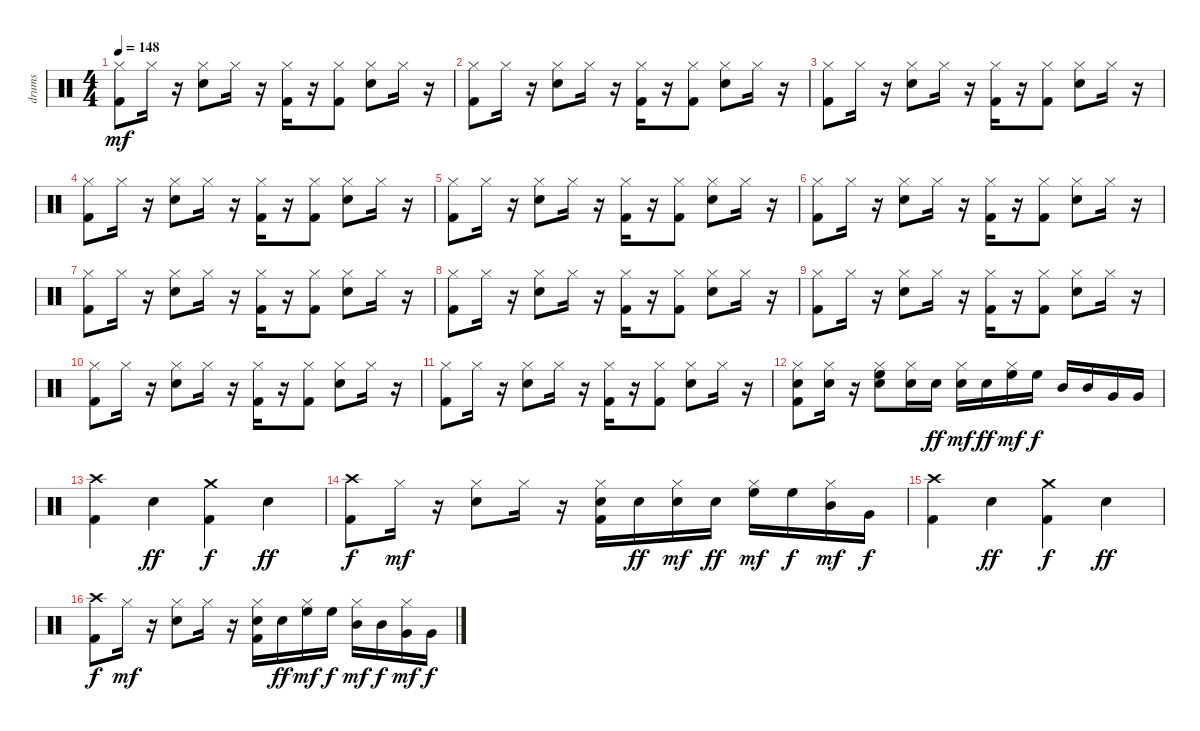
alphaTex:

\track ("drums" "drums") {instrument percussion}
\staff {score}
\articulation defaults
\ts (4 4)
\tempo 148
\clef neutral
\ks c
("Hi-Hat (closed)" "Kick (hit) 2").8{dy mf} "Hi-Hat (closed)".16 r.16 ("Snare (hit) 2" "Hi-Hat (closed)").8 "Hi-Hat (closed)".16 r.16 ("Hi-Hat (closed)" "Kick (hit) 2").16 r.16 ("Hi-Hat (closed)" "Kick (hit) 2").8 ("Snare (hit) 2" "Hi-Hat (closed)").8 "Hi-Hat (closed)".16 r.16 |
("Hi-Hat (closed)" "Kick (hit) 2").8 "Hi-Hat (closed)".16 r.16 ("Snare (hit) 2" "Hi-Hat (closed)").8 "Hi-Hat (closed)".16 r.16 ("Hi-Hat (closed)" "Kick (hit) 2").16 r.16 ("Hi-Hat (closed)" "Kick (hit) 2").8 ("Snare (hit) 2" "Hi-Hat (closed)").8 "Hi-Hat (closed)".16 r.16 |
("Hi-Hat (closed)" "Kick (hit) 2").8 "Hi-Hat (closed)".16 r.16 ("Snare (hit) 2" "Hi-Hat (closed)").8 "Hi-Hat (closed)".16 r.16 ("Hi-Hat (closed)" "Kick (hit) 2").16 r.16 ("Hi-Hat (closed)" "Kick (hit) 2").8 ("Snare (hit) 2" "Hi-Hat (closed)").8 "Hi-Hat (closed)".16 r.16 |
("Hi-Hat (closed)" "Kick (hit) 2").8 "Hi-Hat (closed)".16 r.16 ("Snare (hit) 2" "Hi-Hat (closed)").8 "Hi-Hat (closed)".16 r.16 ("Hi-Hat (closed)" "Kick (hit) 2").16 r.16 ("Hi-Hat (closed)" "Kick (hit) 2").8 ("Snare (hit) 2" "Hi-Hat (closed)").8 "Hi-Hat (closed)".16 r.16 |
("Hi-Hat (closed)" "Kick (hit) 2").8 "Hi-Hat (closed)".16 r.16 ("Snare (hit) 2" "Hi-Hat (closed)").8 "Hi-Hat (closed)".16 r.16 ("Hi-Hat (closed)" "Kick (hit) 2").16 r.16 ("Hi-Hat (closed)" "Kick (hit) 2").8 ("Snare (hit) 2" "Hi-Hat (closed)").8 "Hi-Hat (closed)".16 r.16 |
("Hi-Hat (closed)" "Kick (hit) 2").8 "Hi-Hat (closed)".16 r.16 ("Snare (hit) 2" "Hi-Hat (closed)").8 "Hi-Hat (closed)".16 r.16 ("Hi-Hat (closed)" "Kick (hit) 2").16 r.16 ("Hi-Hat (closed)" "Kick (hit) 2").8 ("Snare (hit) 2" "Hi-Hat (closed)").8 "Hi-Hat (closed)".16 r.16 |
("Hi-Hat (closed)" "Kick (hit) 2").8 "Hi-Hat (closed)".16 r.16 ("Snare (hit) 2" "Hi-Hat (closed)").8 "Hi-Hat (closed)".16 r.16 ("Hi-Hat (closed)" "Kick (hit) 2").16 r.16 ("Hi-Hat (closed)" "Kick (hit) 2").8 ("Snare (hit) 2" "Hi-Hat (closed)").8 "Hi-Hat (closed)".16 r.16 |
("Hi-Hat (closed)" "Kick (hit) 2").8 "Hi-Hat (closed)".16 r.16 ("Snare (hit) 2" "Hi-Hat (closed)").8 "Hi-Hat (closed)".16 r.16 ("Hi-Hat (closed)" "Kick (hit) 2").16 r.16 ("Hi-Hat (closed)" "Kick (hit) 2").8 ("Snare (hit) 2" "Hi-Hat (closed)").8 "Hi-Hat (closed)".16 r.16 |
("Hi-Hat (closed)" "Kick (hit) 2").8 "Hi-Hat (closed)".16 r.16 ("Snare (hit) 2" "Hi-Hat (closed)").8 "Hi-Hat (closed)".16 r.16 ("Hi-Hat (closed)" "Kick (hit) 2").16 r.16 ("Hi-Hat (closed)" "Kick (hit) 2").8 ("Snare (hit) 2" "Hi-Hat (closed)").8 "Hi-Hat (closed)".16 r.16 |
("Hi-Hat (closed)" "Kick (hit) 2").8 "Hi-Hat (closed)".16 r.16 ("Snare (hit) 2" "Hi-Hat (closed)").8 "Hi-Hat (closed)".16 r.16 ("Hi-Hat (closed)" "Kick (hit) 2").16 r.16 ("Hi-Hat (closed)" "Kick (hit) 2").8 ("Snare (hit) 2" "Hi-Hat (closed)").8 "Hi-Hat (closed)".16 r.16 |
("Hi-Hat (closed)" "Kick (hit) 2").8 "Hi-Hat (closed)".16 r.16 ("Snare (hit) 2" "Hi-Hat (closed)").8 "Hi-Hat (closed)".16 r.16 ("Hi-Hat (closed)" "Kick (hit) 2").16 r.16 ("Hi-Hat (closed)" "Kick (hit) 2").8 ("Snare (hit) 2" "Hi-Hat (closed)").8 "Hi-Hat (closed)".16 r.16 |
("Snare (hit) 2" "Hi-Hat (closed)" "Kick (hit) 2").8 ("Snare (hit) 2" "Hi-Hat (closed)").16 r.16 ("High Floor Tom (hit)" "Snare (hit) 2" "Hi-Hat (closed)").8 ("Snare (hit) 2" "Hi-Hat (closed)").16 "Snare (hit) 2".16{dy ff} ("Snare (hit) 2" "Hi-Hat (closed)").16{dy mf} "Snare (hit) 2".16{dy ff} ("High Floor Tom (hit)" "Hi-Hat (closed)").16{dy mf} "High Floor Tom (hit)".16{dy f} "Mid Tom (hit)".16 "Mid Tom (hit)".16 "Very Low Tom (hit)".16 "Very Low Tom (hit)".16 |
("Crash high (hit)" "Kick (hit) 2").4 "Snare (hit) 2".4{dy ff} ("Crash medium (hit)" "Kick (hit) 2").4{dy f} "Snare (hit) 2".4{dy ff} |
("Crash high (hit)" "Kick (hit) 2").8{dy f} "Hi-Hat (closed)".16{dy mf} r.16 ("Snare (hit) 2" "Hi-Hat (closed)").8 "Hi-Hat (closed)".16 r.16 ("Snare (hit) 2" "Hi-Hat (closed)" "Kick (hit) 2").16 "Snare (hit) 2".16{dy ff} ("Snare (hit) 2" "Hi-Hat (closed)").16{dy mf} "Snare (hit) 2".16{dy ff} ("High Floor Tom (hit)" "Hi-Hat (closed)").16{dy mf} "High Floor Tom (hit)".16{dy f} ("Mid Tom (hit)" "Hi-Hat (closed)").16{dy mf} "Very Low Tom (hit)".16{dy f} |
("Crash high (hit)" "Kick (hit) 2").4 "Snare (hit) 2".4{dy ff} ("Crash medium (hit)" "Kick (hit) 2").4{dy f} "Snare (hit) 2".4{dy ff} |
("Crash high (hit)" "Kick (hit) 2").8{dy f} "Hi-Hat (closed)".16{dy mf} r.16 ("Snare (hit) 2" "Hi-Hat (closed)").8 "Hi-Hat (closed)".16 r.16 ("Snare (hit) 2" "Hi-Hat (closed)" "Kick (hit) 2").16 "Snare (hit) 2".16{dy ff} ("High Floor Tom (hit)" "Hi-Hat (closed)").16{dy mf} "High Floor Tom (hit)".16{dy f} ("Mid Tom (hit)" "Hi-Hat (closed)").16{dy mf} "Mid Tom (hit)".16{dy f} ("Very Low Tom (hit)" "Hi-Hat (closed)").16{dy mf} "Very Low Tom (hit)".16{dy f}
